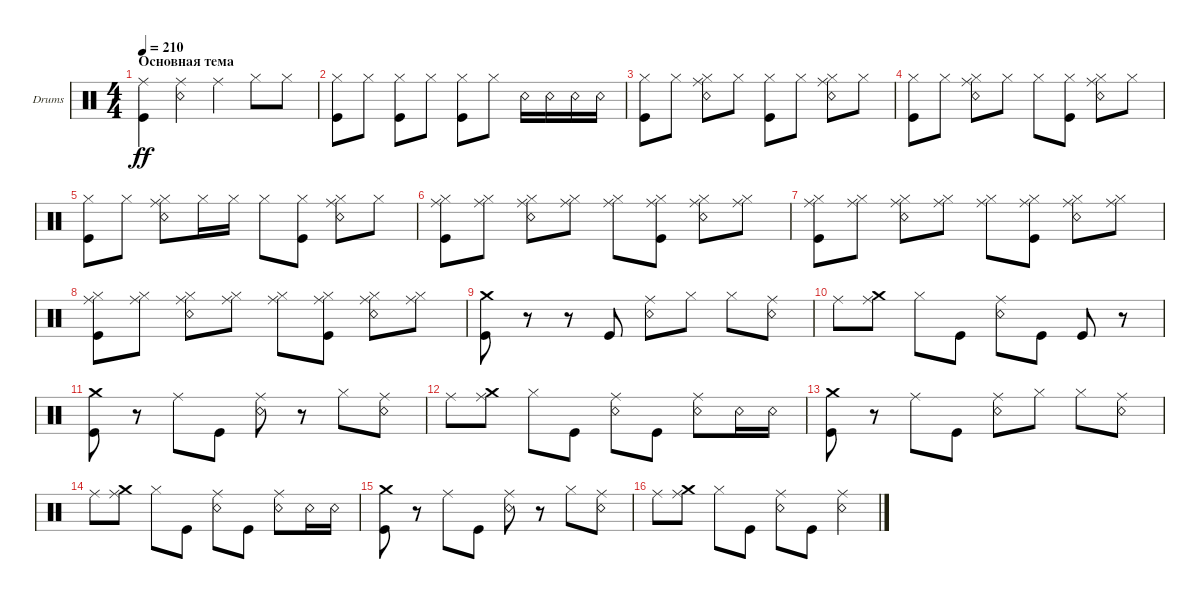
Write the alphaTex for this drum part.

\defaultSystemsLayout 4
\bracketExtendMode groupsimilarinstruments
\firstSystemTrackNameOrientation horizontal
\otherSystemsTrackNameOrientation horizontal
\track ("Drumkit" "Drums") {instrument percussion}
\staff {score}
\articulation defaults
\ts (4 4)
\section ("" "Основная тема")
\tempo 210
\clef neutral
\ks c
("Kick (hit)" "Ride (middle)").4{dy ff} ("Snare (rim shot)" "Ride (middle)").4 "Ride (middle)".4 "Hi-Hat (closed)".8 "Hi-Hat (closed)".8 |
("Kick (hit)" "Hi-Hat (closed)").8 "Hi-Hat (closed)".8 ("Kick (hit)" "Hi-Hat (closed)").8 "Hi-Hat (closed)".8 ("Kick (hit)" "Hi-Hat (closed)").8 "Hi-Hat (closed)".8 "Snare (rim shot)".16 "Snare (rim shot)".16 "Snare (rim shot)".16 "Snare (rim shot)".16 |
("Kick (hit)" "Hi-Hat (closed)").8 "Hi-Hat (closed)".8 ("Hi-Hat (closed)" "Snare (rim shot)" "Ride (middle)").8 "Hi-Hat (closed)".8 ("Kick (hit)" "Hi-Hat (closed)").8 "Hi-Hat (closed)".8 ("Hi-Hat (closed)" "Snare (rim shot)" "Ride (middle)").8 "Hi-Hat (closed)".8 |
("Kick (hit)" "Hi-Hat (closed)").8 "Hi-Hat (closed)".8 ("Hi-Hat (closed)" "Snare (rim shot)" "Ride (middle)").8 "Hi-Hat (closed)".8 "Hi-Hat (closed)".8 ("Hi-Hat (closed)" "Kick (hit)").8 ("Hi-Hat (closed)" "Snare (rim shot)" "Ride (middle)").8 "Hi-Hat (closed)".8 |
("Kick (hit)" "Hi-Hat (closed)").8 "Hi-Hat (closed)".8 ("Hi-Hat (closed)" "Snare (rim shot)" "Ride (middle)").8 "Hi-Hat (closed)".16 "Hi-Hat (closed)".16 "Hi-Hat (closed)".8 ("Hi-Hat (closed)" "Kick (hit)").8 ("Hi-Hat (closed)" "Snare (rim shot)" "Ride (middle)").8 "Hi-Hat (closed)".8 |
("Kick (hit)" "Hi-Hat (closed)" "Ride (middle)").8 ("Hi-Hat (closed)" "Ride (middle)").8 ("Hi-Hat (closed)" "Snare (rim shot)" "Ride (middle)").8 ("Hi-Hat (closed)" "Ride (middle)").8 ("Hi-Hat (closed)" "Ride (middle)").8 ("Hi-Hat (closed)" "Kick (hit)" "Ride (middle)").8 ("Hi-Hat (closed)" "Snare (rim shot)" "Ride (middle)").8 ("Hi-Hat (closed)" "Ride (middle)").8 |
("Kick (hit)" "Hi-Hat (closed)" "Ride (middle)").8 ("Hi-Hat (closed)" "Ride (middle)").8 ("Hi-Hat (closed)" "Snare (rim shot)" "Ride (middle)").8 ("Hi-Hat (closed)" "Ride (middle)").8 ("Hi-Hat (closed)" "Ride (middle)").8 ("Hi-Hat (closed)" "Kick (hit)" "Ride (middle)").8 ("Hi-Hat (closed)" "Snare (rim shot)" "Ride (middle)").8 ("Hi-Hat (closed)" "Ride (middle)").8 |
("Kick (hit)" "Hi-Hat (closed)" "Ride (middle)").8 ("Hi-Hat (closed)" "Ride (middle)").8 ("Hi-Hat (closed)" "Snare (rim shot)" "Ride (middle)").8 ("Hi-Hat (closed)" "Ride (middle)").8 ("Hi-Hat (closed)" "Ride (middle)").8 ("Hi-Hat (closed)" "Kick (hit)" "Ride (middle)").8 ("Hi-Hat (closed)" "Snare (rim shot)" "Ride (middle)").8 ("Hi-Hat (closed)" "Ride (middle)").8 |
("Kick (hit)" "Crash medium (hit)").8 r.8 r.8 "Kick (hit)".8 ("Snare (rim shot)" "Ride (middle)").8 "Hi-Hat (closed)".8 "Hi-Hat (closed)".8 ("Snare (rim shot)" "Ride (middle)").8 |
"Ride (middle)".8 ("Ride (middle)" "Crash medium (hit)").8 "Hi-Hat (closed)".8 "Kick (hit)".8 ("Snare (rim shot)" "Ride (middle)").8 "Kick (hit)".8 "Kick (hit)".8 r.8 |
("Kick (hit)" "Crash medium (hit)").8 r.8 "Ride (middle)".8 "Kick (hit)".8 ("Snare (rim shot)" "Ride (middle)").8 r.8 "Hi-Hat (closed)".8 ("Snare (rim shot)" "Ride (middle)").8 |
"Ride (middle)".8 ("Ride (middle)" "Crash medium (hit)").8 "Hi-Hat (closed)".8 "Kick (hit)".8 ("Snare (rim shot)" "Ride (middle)").8 "Kick (hit)".8 ("Snare (rim shot)" "Ride (middle)").8 "Snare (rim shot)".16 "Snare (rim shot)".16 |
("Kick (hit)" "Crash medium (hit)").8 r.8 "Ride (middle)".8 "Kick (hit)".8 ("Snare (rim shot)" "Ride (middle)").8 "Hi-Hat (closed)".8 "Hi-Hat (closed)".8 ("Snare (rim shot)" "Ride (middle)").8 |
"Ride (middle)".8 ("Ride (middle)" "Crash medium (hit)").8 "Hi-Hat (closed)".8 "Kick (hit)".8 ("Snare (rim shot)" "Ride (middle)").8 "Kick (hit)".8 ("Snare (rim shot)" "Ride (middle)").8 "Snare (rim shot)".16 "Snare (rim shot)".16 |
("Kick (hit)" "Crash medium (hit)").8 r.8 "Ride (middle)".8 "Kick (hit)".8 ("Snare (rim shot)" "Ride (middle)").8 r.8 "Hi-Hat (closed)".8 ("Snare (rim shot)" "Ride (middle)").8 |
"Ride (middle)".8 ("Ride (middle)" "Crash medium (hit)").8 "Hi-Hat (closed)".8 "Kick (hit)".8 ("Snare (rim shot)" "Ride (middle)").8 "Kick (hit)".8 ("Snare (rim shot)" "Ride (middle)").4
